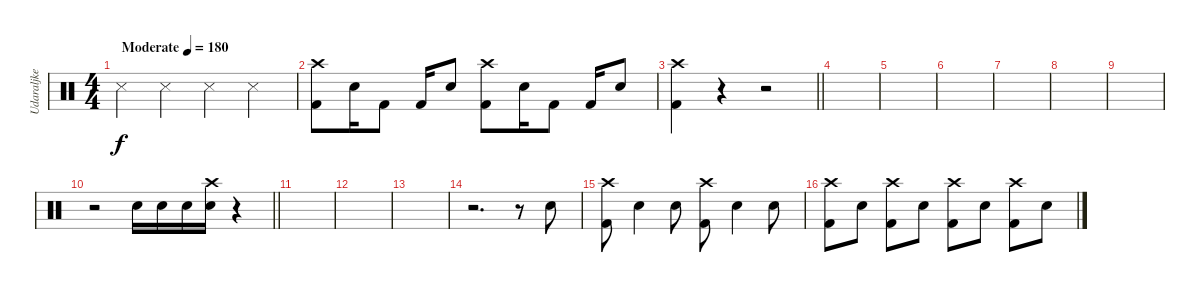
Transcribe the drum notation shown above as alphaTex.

\track ("Udaraljke" "Udaraljke") {instrument percussion}
\staff {score}
\articulation defaults
\ts (4 4)
\tempo (180 "Moderate")
\clef neutral
\ks c "Snare (side stick) 3".4{dy f} "Snare (side stick) 3".4 "Snare (side stick) 3".4 "Snare (side stick) 3".4
|
("Crash high (hit)" "Kick (hit) 2").8 "Electric Snare (hit)".16 "Kick (hit) 2".8 "Kick (hit) 2".16 "Electric Snare (hit)".8 ("Crash high (hit)" "Kick (hit) 2").8 "Electric Snare (hit)".16 "Kick (hit) 2".8 "Kick (hit) 2".16 "Electric Snare (hit)".8 |
\barLineRight lightlight
("Crash high (hit)" "Kick (hit) 2").4 r.4 r.2 |
|
|
|
|
|
|
\barLineRight lightlight
r.2 "Electric Snare (hit)".16 "Electric Snare (hit)".16 "Electric Snare (hit)".16 ("Crash high (hit)" "Electric Snare (hit)").16 r.4 |
|
|
|
r.2{d} r.8 "Electric Snare (hit)".8 |
("Crash high (hit)" "Kick (hit) 2").8 "Electric Snare (hit)".4 "Electric Snare (hit)".8 ("Crash high (hit)" "Kick (hit) 2").8 "Electric Snare (hit)".4 "Electric Snare (hit)".8 |
("Crash high (hit)" "Kick (hit) 2").8 "Electric Snare (hit)".8 ("Crash high (hit)" "Kick (hit) 2").8 "Electric Snare (hit)".8 ("Crash high (hit)" "Kick (hit) 2").8 "Electric Snare (hit)".8 ("Crash high (hit)" "Kick (hit) 2").8 "Electric Snare (hit)".8
